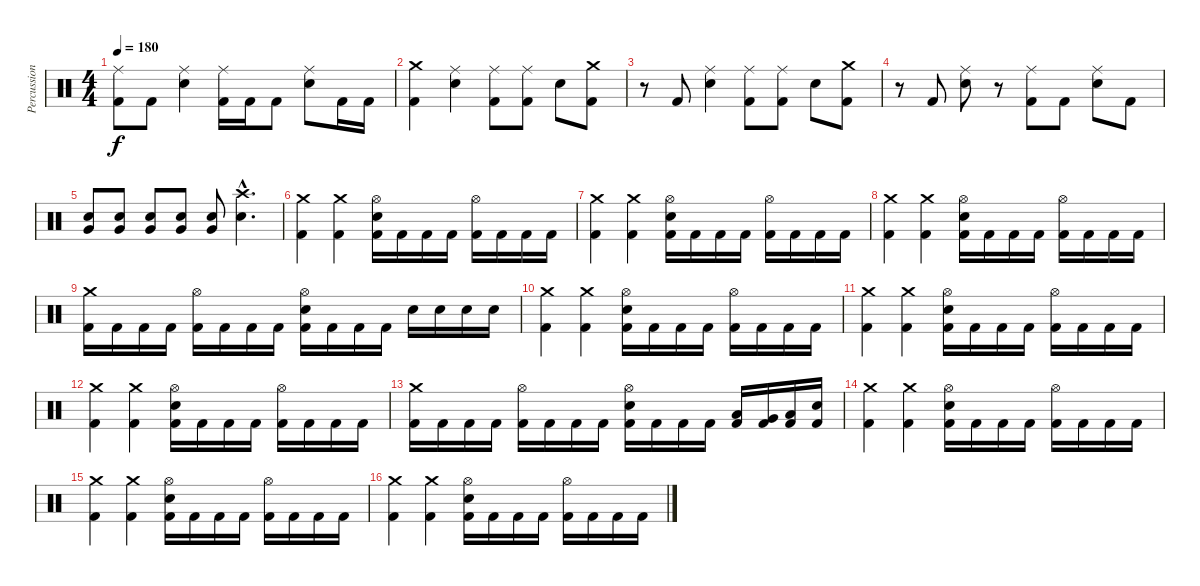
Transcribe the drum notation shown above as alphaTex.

\track ("Percussion" "Percussion") {instrument percussion}
\staff {score}
\articulation defaults
\ts (4 4)
\tempo 180
\clef neutral
\ks c
("Ride (middle)" "Kick (hit) 2").8{dy f} "Kick (hit) 2".8 ("Ride (middle)" "Electric Snare (hit)").4 ("Ride (middle)" "Kick (hit) 2").16 "Kick (hit) 2".16 "Kick (hit) 2".8 ("Ride (middle)" "Electric Snare (hit)").8 "Kick (hit) 2".16 "Kick (hit) 2".16 |
("Crash medium (hit)" "Kick (hit) 2").4 ("Ride (middle)" "Electric Snare (hit)").4 ("Ride (middle)" "Kick (hit) 2").8 ("Ride (middle)" "Kick (hit) 2").8 "Electric Snare (hit)".8 ("Crash medium (hit)" "Kick (hit) 2").8 |
r.8 "Kick (hit) 2".8 ("Ride (middle)" "Electric Snare (hit)").4 ("Ride (middle)" "Kick (hit) 2").8 ("Ride (middle)" "Kick (hit) 2").8 "Electric Snare (hit)".8 ("Crash medium (hit)" "Kick (hit) 2").8 |
r.8 "Kick (hit) 2".8 ("Ride (middle)" "Electric Snare (hit)").8 r.8 ("Ride (middle)" "Kick (hit) 2").8 "Kick (hit) 2".8 ("Ride (middle)" "Electric Snare (hit)").8 "Kick (hit) 2".8 |
("Very Low Tom (hit)" "Electric Snare (hit)").8 ("Very Low Tom (hit)" "Electric Snare (hit)").8 ("Very Low Tom (hit)" "Electric Snare (hit)").8 ("Very Low Tom (hit)" "Electric Snare (hit)").8 ("Very Low Tom (hit)" "Electric Snare (hit)").8 ("Crash high (hit)"{hac} "Electric Snare (hit)"{hac}).4{d} |
("Crash medium (hit)" "Kick (hit) 2").4 ("Crash medium (hit)" "Kick (hit) 2").4 ("Hi-Hat (open)" "Electric Snare (hit)" "Kick (hit) 2").16 "Kick (hit) 2".16 "Kick (hit) 2".16 "Kick (hit) 2".16 ("Hi-Hat (open)" "Kick (hit) 2").16 "Kick (hit) 2".16 "Kick (hit) 2".16 "Kick (hit) 2".16 |
("Crash medium (hit)" "Kick (hit) 2").4 ("Crash medium (hit)" "Kick (hit) 2").4 ("Hi-Hat (open)" "Electric Snare (hit)" "Kick (hit) 2").16 "Kick (hit) 2".16 "Kick (hit) 2".16 "Kick (hit) 2".16 ("Hi-Hat (open)" "Kick (hit) 2").16 "Kick (hit) 2".16 "Kick (hit) 2".16 "Kick (hit) 2".16 |
("Crash medium (hit)" "Kick (hit) 2").4 ("Crash medium (hit)" "Kick (hit) 2").4 ("Hi-Hat (open)" "Electric Snare (hit)" "Kick (hit) 2").16 "Kick (hit) 2".16 "Kick (hit) 2".16 "Kick (hit) 2".16 ("Hi-Hat (open)" "Kick (hit) 2").16 "Kick (hit) 2".16 "Kick (hit) 2".16 "Kick (hit) 2".16 |
("Crash medium (hit)" "Kick (hit) 2").16 "Kick (hit) 2".16 "Kick (hit) 2".16 "Kick (hit) 2".16 ("Hi-Hat (open)" "Kick (hit) 2").16 "Kick (hit) 2".16 "Kick (hit) 2".16 "Kick (hit) 2".16 ("Hi-Hat (open)" "Electric Snare (hit)" "Kick (hit) 2").16 "Kick (hit) 2".16 "Kick (hit) 2".16 "Kick (hit) 2".16 "Electric Snare (hit)".16 "Electric Snare (hit)".16 "Electric Snare (hit)".16 "Electric Snare (hit)".16 |
("Crash medium (hit)" "Kick (hit) 2").4 ("Crash medium (hit)" "Kick (hit) 2").4 ("Hi-Hat (open)" "Electric Snare (hit)" "Kick (hit) 2").16 "Kick (hit) 2".16 "Kick (hit) 2".16 "Kick (hit) 2".16 ("Hi-Hat (open)" "Kick (hit) 2").16 "Kick (hit) 2".16 "Kick (hit) 2".16 "Kick (hit) 2".16 |
("Crash medium (hit)" "Kick (hit) 2").4 ("Crash medium (hit)" "Kick (hit) 2").4 ("Hi-Hat (open)" "Electric Snare (hit)" "Kick (hit) 2").16 "Kick (hit) 2".16 "Kick (hit) 2".16 "Kick (hit) 2".16 ("Hi-Hat (open)" "Kick (hit) 2").16 "Kick (hit) 2".16 "Kick (hit) 2".16 "Kick (hit) 2".16 |
("Crash medium (hit)" "Kick (hit) 2").4 ("Crash medium (hit)" "Kick (hit) 2").4 ("Hi-Hat (open)" "Electric Snare (hit)" "Kick (hit) 2").16 "Kick (hit) 2".16 "Kick (hit) 2".16 "Kick (hit) 2".16 ("Hi-Hat (open)" "Kick (hit) 2").16 "Kick (hit) 2".16 "Kick (hit) 2".16 "Kick (hit) 2".16 |
("Crash medium (hit)" "Kick (hit) 2").16 "Kick (hit) 2".16 "Kick (hit) 2".16 "Kick (hit) 2".16 ("Hi-Hat (open)" "Kick (hit) 2").16 "Kick (hit) 2".16 "Kick (hit) 2".16 "Kick (hit) 2".16 ("Hi-Hat (open)" "Electric Snare (hit)" "Kick (hit) 2").16 "Kick (hit) 2".16 "Kick (hit) 2".16 "Kick (hit) 2".16 ("Low Tom (hit)" "Kick (hit) 2").16 ("Very Low Tom (hit)" "Kick (hit) 2").16 ("Low Floor Tom (hit)" "Kick (hit) 2").16 ("Snare (hit)" "Kick (hit) 2").16 |
("Crash medium (hit)" "Kick (hit) 2").4 ("Crash medium (hit)" "Kick (hit) 2").4 ("Hi-Hat (open)" "Electric Snare (hit)" "Kick (hit) 2").16 "Kick (hit) 2".16 "Kick (hit) 2".16 "Kick (hit) 2".16 ("Hi-Hat (open)" "Kick (hit) 2").16 "Kick (hit) 2".16 "Kick (hit) 2".16 "Kick (hit) 2".16 |
("Crash medium (hit)" "Kick (hit) 2").4 ("Crash medium (hit)" "Kick (hit) 2").4 ("Hi-Hat (open)" "Electric Snare (hit)" "Kick (hit) 2").16 "Kick (hit) 2".16 "Kick (hit) 2".16 "Kick (hit) 2".16 ("Hi-Hat (open)" "Kick (hit) 2").16 "Kick (hit) 2".16 "Kick (hit) 2".16 "Kick (hit) 2".16 |
("Crash medium (hit)" "Kick (hit) 2").4 ("Crash medium (hit)" "Kick (hit) 2").4 ("Hi-Hat (open)" "Electric Snare (hit)" "Kick (hit) 2").16 "Kick (hit) 2".16 "Kick (hit) 2".16 "Kick (hit) 2".16 ("Hi-Hat (open)" "Kick (hit) 2").16 "Kick (hit) 2".16 "Kick (hit) 2".16 "Kick (hit) 2".16
